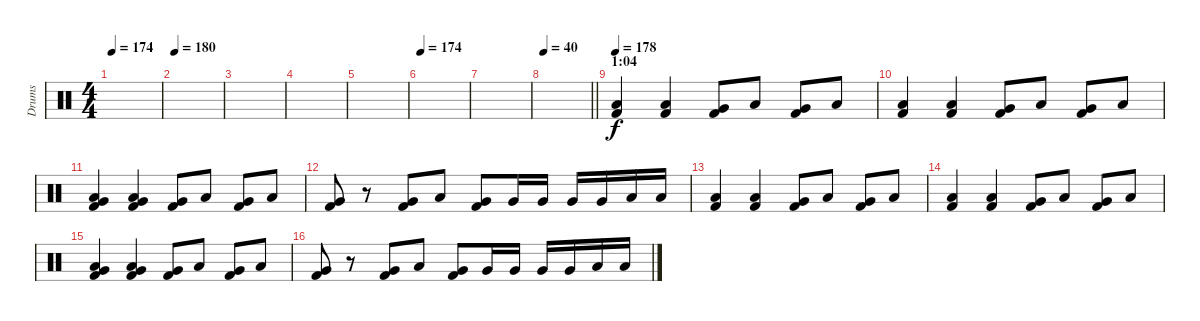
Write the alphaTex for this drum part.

\track ("Drums" "Drums") {instrument percussion}
\staff {score}
\articulation defaults
\ts (4 4)
\tempo 174
\clef neutral
\ks c
|
\tempo 180
|
|
|
|
\tempo 174
|
|
\tempo 40
\barLineRight lightlight
|
\section ("" "1:04")
\tempo 178
("Low Floor Tom (hit)" "Kick (hit) 2").4 ("Low Floor Tom (hit)" "Kick (hit) 2").4 ("Very Low Tom (hit)" "Kick (hit) 2").8 "Low Floor Tom (hit)".8 ("Very Low Tom (hit)" "Kick (hit) 2").8 "Low Floor Tom (hit)".8 |
("Low Floor Tom (hit)" "Kick (hit) 2").4 ("Low Floor Tom (hit)" "Kick (hit) 2").4 ("Very Low Tom (hit)" "Kick (hit) 2").8 "Low Floor Tom (hit)".8 ("Very Low Tom (hit)" "Kick (hit) 2").8 "Low Floor Tom (hit)".8 |
("Low Floor Tom (hit)" "Very Low Tom (hit)" "Kick (hit) 2").4 ("Low Floor Tom (hit)" "Very Low Tom (hit)" "Kick (hit) 2").4 ("Very Low Tom (hit)" "Kick (hit) 2").8 "Low Floor Tom (hit)".8 ("Very Low Tom (hit)" "Kick (hit) 2").8 "Low Floor Tom (hit)".8 |
("Very Low Tom (hit)" "Kick (hit) 2").8 r.8 ("Very Low Tom (hit)" "Kick (hit) 2").8 "Low Floor Tom (hit)".8 ("Very Low Tom (hit)" "Kick (hit) 2").8 "Very Low Tom (hit)".16 "Very Low Tom (hit)".16 "Very Low Tom (hit)".16 "Very Low Tom (hit)".16 "Low Floor Tom (hit)".16 "Low Floor Tom (hit)".16 |
("Low Floor Tom (hit)" "Kick (hit) 2").4 ("Low Floor Tom (hit)" "Kick (hit) 2").4 ("Very Low Tom (hit)" "Kick (hit) 2").8 "Low Floor Tom (hit)".8 ("Very Low Tom (hit)" "Kick (hit) 2").8 "Low Floor Tom (hit)".8 |
("Low Floor Tom (hit)" "Kick (hit) 2").4 ("Low Floor Tom (hit)" "Kick (hit) 2").4 ("Very Low Tom (hit)" "Kick (hit) 2").8 "Low Floor Tom (hit)".8 ("Very Low Tom (hit)" "Kick (hit) 2").8 "Low Floor Tom (hit)".8 |
("Low Floor Tom (hit)" "Very Low Tom (hit)" "Kick (hit) 2").4 ("Low Floor Tom (hit)" "Very Low Tom (hit)" "Kick (hit) 2").4 ("Very Low Tom (hit)" "Kick (hit) 2").8 "Low Floor Tom (hit)".8 ("Very Low Tom (hit)" "Kick (hit) 2").8 "Low Floor Tom (hit)".8 |
("Very Low Tom (hit)" "Kick (hit) 2").8 r.8 ("Very Low Tom (hit)" "Kick (hit) 2").8 "Low Floor Tom (hit)".8 ("Very Low Tom (hit)" "Kick (hit) 2").8 "Very Low Tom (hit)".16 "Very Low Tom (hit)".16 "Very Low Tom (hit)".16 "Very Low Tom (hit)".16 "Low Floor Tom (hit)".16 "Low Floor Tom (hit)".16
